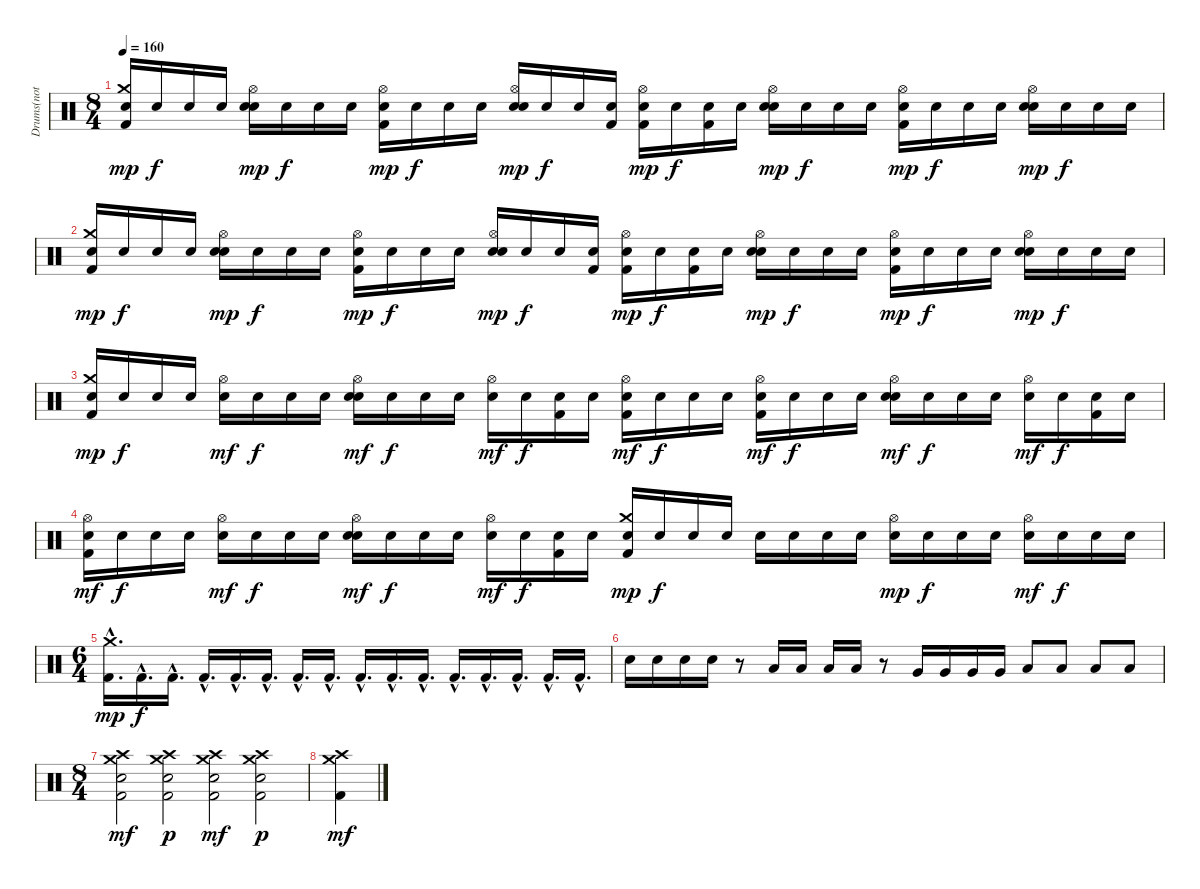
\track ("Drums(not correct)" "Drums(not ") {instrument percussion}
\staff {score}
\articulation defaults
\ts (8 4)
\tempo 160
\clef neutral
\ks c
("Snare (hit)"{x} "Crash medium (hit)" "Kick (hit) 2").16{dy mp} "Snare (hit)"{x}.16{dy f} "Snare (hit)"{x}.16 "Snare (hit)"{x}.16 ("Snare (hit)"{x} "Hi-Hat (open)" "Electric Snare (hit)").16{dy mp} "Snare (hit)"{x}.16{dy f} "Snare (hit)"{x}.16 "Snare (hit)"{x}.16 ("Snare (hit)"{x} "Hi-Hat (open)" "Kick (hit) 2").16{dy mp} "Snare (hit)"{x}.16{dy f} "Snare (hit)"{x}.16 "Snare (hit)"{x}.16 ("Snare (hit)"{x} "Hi-Hat (open)" "Electric Snare (hit)").16{dy mp} "Snare (hit)"{x}.16{dy f} "Snare (hit)"{x}.16 ("Snare (hit)"{x} "Kick (hit) 2").16 ("Snare (hit)"{x} "Hi-Hat (open)" "Kick (hit) 2").16{dy mp} "Snare (hit)"{x}.16{dy f} ("Snare (hit)"{x} "Kick (hit) 2").16 "Snare (hit)"{x}.16 ("Snare (hit)"{x} "Hi-Hat (open)" "Electric Snare (hit)").16{dy mp} "Snare (hit)"{x}.16{dy f} "Snare (hit)"{x}.16 "Snare (hit)"{x}.16 ("Snare (hit)"{x} "Hi-Hat (open)" "Kick (hit) 2").16{dy mp} "Snare (hit)"{x}.16{dy f} "Snare (hit)"{x}.16 "Snare (hit)"{x}.16 ("Snare (hit)"{x} "Hi-Hat (open)" "Electric Snare (hit)").16{dy mp} "Snare (hit)"{x}.16{dy f} "Snare (hit)"{x}.16 "Snare (hit)"{x}.16 |
("Snare (hit)"{x} "Crash medium (hit)" "Kick (hit) 2").16{dy mp} "Snare (hit)"{x}.16{dy f} "Snare (hit)"{x}.16 "Snare (hit)"{x}.16 ("Snare (hit)"{x} "Hi-Hat (open)" "Electric Snare (hit)").16{dy mp} "Snare (hit)"{x}.16{dy f} "Snare (hit)"{x}.16 "Snare (hit)"{x}.16 ("Snare (hit)"{x} "Hi-Hat (open)" "Kick (hit) 2").16{dy mp} "Snare (hit)"{x}.16{dy f} "Snare (hit)"{x}.16 "Snare (hit)"{x}.16 ("Snare (hit)"{x} "Hi-Hat (open)" "Electric Snare (hit)").16{dy mp} "Snare (hit)"{x}.16{dy f} "Snare (hit)"{x}.16 ("Snare (hit)"{x} "Kick (hit) 2").16 ("Snare (hit)"{x} "Hi-Hat (open)" "Kick (hit) 2").16{dy mp} "Snare (hit)"{x}.16{dy f} ("Snare (hit)"{x} "Kick (hit) 2").16 "Snare (hit)"{x}.16 ("Snare (hit)"{x} "Hi-Hat (open)" "Electric Snare (hit)").16{dy mp} "Snare (hit)"{x}.16{dy f} "Snare (hit)"{x}.16 "Snare (hit)"{x}.16 ("Snare (hit)"{x} "Hi-Hat (open)" "Kick (hit) 2").16{dy mp} "Snare (hit)"{x}.16{dy f} "Snare (hit)"{x}.16 "Snare (hit)"{x}.16 ("Snare (hit)"{x} "Hi-Hat (open)" "Electric Snare (hit)").16{dy mp} "Snare (hit)"{x}.16{dy f} "Snare (hit)"{x}.16 "Snare (hit)"{x}.16 |
("Snare (hit)"{x} "Crash medium (hit)" "Kick (hit) 2").16{dy mp} "Snare (hit)"{x}.16{dy f} "Snare (hit)"{x}.16 "Snare (hit)"{x}.16 ("Snare (hit)"{x} "Hi-Hat (open)").16{dy mf} "Snare (hit)"{x}.16{dy f} "Snare (hit)"{x}.16 "Snare (hit)"{x}.16 ("Snare (hit)"{x} "Hi-Hat (open)" "Electric Snare (hit)").16{dy mf} "Snare (hit)"{x}.16{dy f} "Snare (hit)"{x}.16 "Snare (hit)"{x}.16 ("Snare (hit)"{x} "Hi-Hat (open)").16{dy mf} "Snare (hit)"{x}.16{dy f} ("Snare (hit)"{x} "Kick (hit) 2").16 "Snare (hit)"{x}.16 ("Snare (hit)"{x} "Hi-Hat (open)" "Kick (hit) 2").16{dy mf} "Snare (hit)"{x}.16{dy f} "Snare (hit)"{x}.16 "Snare (hit)"{x}.16 ("Snare (hit)"{x} "Hi-Hat (open)" "Kick (hit) 2").16{dy mf} "Snare (hit)"{x}.16{dy f} "Snare (hit)"{x}.16 "Snare (hit)"{x}.16 ("Snare (hit)"{x} "Hi-Hat (open)" "Electric Snare (hit)").16{dy mf} "Snare (hit)"{x}.16{dy f} "Snare (hit)"{x}.16 "Snare (hit)"{x}.16 ("Snare (hit)"{x} "Hi-Hat (open)").16{dy mf} "Snare (hit)"{x}.16{dy f} ("Snare (hit)"{x} "Kick (hit) 2").16 "Snare (hit)"{x}.16 |
("Snare (hit)"{x} "Hi-Hat (open)" "Kick (hit) 2").16{dy mf} "Snare (hit)"{x}.16{dy f} "Snare (hit)"{x}.16 "Snare (hit)"{x}.16 ("Snare (hit)"{x} "Hi-Hat (open)").16{dy mf} "Snare (hit)"{x}.16{dy f} "Snare (hit)"{x}.16 "Snare (hit)"{x}.16 ("Snare (hit)"{x} "Hi-Hat (open)" "Electric Snare (hit)").16{dy mf} "Snare (hit)"{x}.16{dy f} "Snare (hit)"{x}.16 "Snare (hit)"{x}.16 ("Snare (hit)"{x} "Hi-Hat (open)").16{dy mf} "Snare (hit)"{x}.16{dy f} ("Snare (hit)"{x} "Kick (hit) 2").16 "Snare (hit)"{x}.16 ("Snare (hit)"{x} "Crash medium (hit)" "Kick (hit) 2").16{dy mp} "Snare (hit)"{x}.16{dy f} "Snare (hit)"{x}.16 "Snare (hit)"{x}.16 "Snare (hit)"{x}.16 "Snare (hit)"{x}.16 "Snare (hit)"{x}.16 "Snare (hit)"{x}.16 ("Snare (hit)"{x} "Hi-Hat (open)").16{dy mp} "Snare (hit)"{x}.16{dy f} "Snare (hit)"{x}.16 "Snare (hit)"{x}.16 ("Snare (hit)"{x} "Hi-Hat (open)").16{dy mf} "Snare (hit)"{x}.16{dy f} "Snare (hit)"{x}.16 "Snare (hit)"{x}.16 |
\ts (6 4)
("Crash medium (hit)"{hac} "Kick (hit) 2"{hac}).16{d dy mp} "Kick (hit) 2"{hac}.16{d dy f} "Kick (hit) 2"{hac}.16{d} "Kick (hit) 2"{hac}.16{d} "Kick (hit) 2"{hac}.16{d} "Kick (hit) 2"{hac}.16{d} "Kick (hit) 2"{hac}.16{d} "Kick (hit) 2"{hac}.16{d} "Kick (hit) 2"{hac}.16{d} "Kick (hit) 2"{hac}.16{d} "Kick (hit) 2"{hac}.16{d} "Kick (hit) 2"{hac}.16{d} "Kick (hit) 2"{hac}.16{d} "Kick (hit) 2"{hac}.16{d} "Kick (hit) 2"{hac}.16{d} "Kick (hit) 2"{hac}.16{d} |
"Electric Snare (hit)".16 "Electric Snare (hit)".16 "Electric Snare (hit)".16 "Electric Snare (hit)".16 r.8 "Low Tom (hit)".16 "Low Tom (hit)".16 "Low Tom (hit)".16 "Low Tom (hit)".16 r.8 "Very Low Tom (hit)".16 "Very Low Tom (hit)".16 "Very Low Tom (hit)".16 "Very Low Tom (hit)".16 "Low Floor Tom (hit)".8 "Low Floor Tom (hit)".8 "Low Floor Tom (hit)".8 "Low Floor Tom (hit)".8 |
\ts (8 4)
("Snare (hit)"{x} "Crash high (hit)" "Crash medium (hit)" "Kick (hit) 2").2{dy mf} ("Snare (hit)"{x} "Crash high (hit)" "Crash medium (hit)" "Kick (hit) 2").2{dy p} ("Snare (hit)"{x} "Crash high (hit)" "Crash medium (hit)" "Kick (hit) 2").2{dy mf} ("Snare (hit)"{x} "Crash high (hit)" "Crash medium (hit)" "Kick (hit) 2").2{dy p} |
("Crash high (hit)" "Crash medium (hit)" "Kick (hit) 2").4{dy mf}
